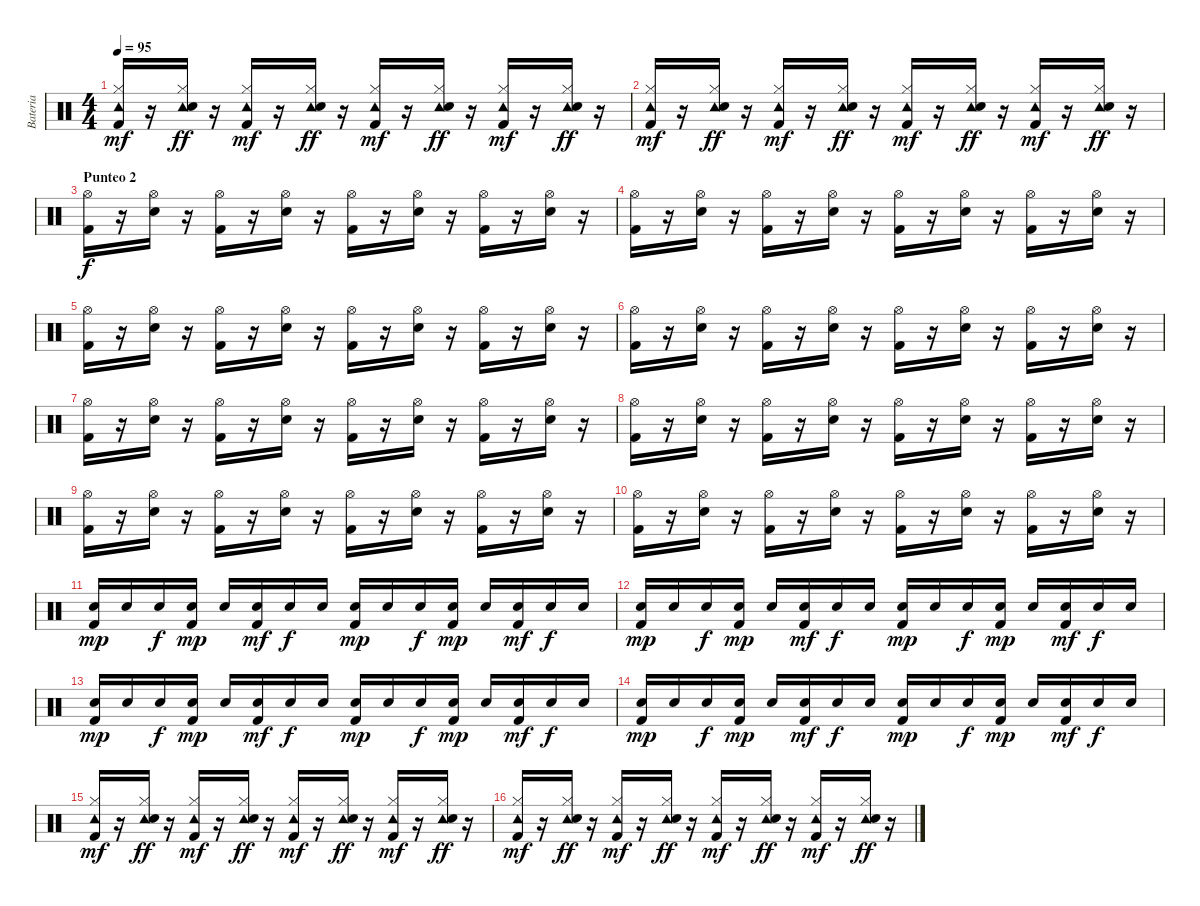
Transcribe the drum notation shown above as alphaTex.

\track ("Bateria" "Bateria") {instrument percussion}
\staff {score}
\articulation defaults
\ts (4 4)
\tempo 95
\clef neutral
\ks c
("Tambourine (hit)" "Hi-Hat (closed)" "Kick (hit) 2").16{dy mf} r.16 ("Tambourine (hit)" "Hi-Hat (closed)" "Snare (hit) 2").16{dy ff} r.16 ("Tambourine (hit)" "Hi-Hat (closed)" "Kick (hit) 2").16{dy mf} r.16 ("Tambourine (hit)" "Hi-Hat (closed)" "Snare (hit) 2").16{dy ff} r.16 ("Tambourine (hit)" "Hi-Hat (closed)" "Kick (hit) 2").16{dy mf} r.16 ("Tambourine (hit)" "Hi-Hat (closed)" "Snare (hit) 2").16{dy ff} r.16 ("Tambourine (hit)" "Hi-Hat (closed)" "Kick (hit) 2").16{dy mf} r.16 ("Tambourine (hit)" "Hi-Hat (closed)" "Snare (hit) 2").16{dy ff} r.16 |
("Tambourine (hit)" "Hi-Hat (closed)" "Kick (hit) 2").16{dy mf} r.16 ("Tambourine (hit)" "Hi-Hat (closed)" "Snare (hit) 2").16{dy ff} r.16 ("Tambourine (hit)" "Hi-Hat (closed)" "Kick (hit) 2").16{dy mf} r.16 ("Tambourine (hit)" "Hi-Hat (closed)" "Snare (hit) 2").16{dy ff} r.16 ("Tambourine (hit)" "Hi-Hat (closed)" "Kick (hit) 2").16{dy mf} r.16 ("Tambourine (hit)" "Hi-Hat (closed)" "Snare (hit) 2").16{dy ff} r.16 ("Tambourine (hit)" "Hi-Hat (closed)" "Kick (hit) 2").16{dy mf} r.16 ("Tambourine (hit)" "Hi-Hat (closed)" "Snare (hit) 2").16{dy ff} r.16 |
\section ("" "Punteo 2")
("Hi-Hat (open)" "Kick (hit) 2").16{dy f} r.16 ("Hi-Hat (open)" "Snare (hit) 2").16 r.16 ("Hi-Hat (open)" "Kick (hit) 2").16 r.16 ("Hi-Hat (open)" "Snare (hit) 2").16 r.16 ("Hi-Hat (open)" "Kick (hit) 2").16 r.16 ("Hi-Hat (open)" "Snare (hit) 2").16 r.16 ("Hi-Hat (open)" "Kick (hit) 2").16 r.16 ("Hi-Hat (open)" "Snare (hit) 2").16 r.16 |
("Hi-Hat (open)" "Kick (hit) 2").16 r.16 ("Hi-Hat (open)" "Snare (hit) 2").16 r.16 ("Hi-Hat (open)" "Kick (hit) 2").16 r.16 ("Hi-Hat (open)" "Snare (hit) 2").16 r.16 ("Hi-Hat (open)" "Kick (hit) 2").16 r.16 ("Hi-Hat (open)" "Snare (hit) 2").16 r.16 ("Hi-Hat (open)" "Kick (hit) 2").16 r.16 ("Hi-Hat (open)" "Snare (hit) 2").16 r.16 |
("Hi-Hat (open)" "Kick (hit) 2").16 r.16 ("Hi-Hat (open)" "Snare (hit) 2").16 r.16 ("Hi-Hat (open)" "Kick (hit) 2").16 r.16 ("Hi-Hat (open)" "Snare (hit) 2").16 r.16 ("Hi-Hat (open)" "Kick (hit) 2").16 r.16 ("Hi-Hat (open)" "Snare (hit) 2").16 r.16 ("Hi-Hat (open)" "Kick (hit) 2").16 r.16 ("Hi-Hat (open)" "Snare (hit) 2").16 r.16 |
("Hi-Hat (open)" "Kick (hit) 2").16 r.16 ("Hi-Hat (open)" "Snare (hit) 2").16 r.16 ("Hi-Hat (open)" "Kick (hit) 2").16 r.16 ("Hi-Hat (open)" "Snare (hit) 2").16 r.16 ("Hi-Hat (open)" "Kick (hit) 2").16 r.16 ("Hi-Hat (open)" "Snare (hit) 2").16 r.16 ("Hi-Hat (open)" "Kick (hit) 2").16 r.16 ("Hi-Hat (open)" "Snare (hit) 2").16 r.16 |
("Hi-Hat (open)" "Kick (hit) 2").16 r.16 ("Hi-Hat (open)" "Snare (hit) 2").16 r.16 ("Hi-Hat (open)" "Kick (hit) 2").16 r.16 ("Hi-Hat (open)" "Snare (hit) 2").16 r.16 ("Hi-Hat (open)" "Kick (hit) 2").16 r.16 ("Hi-Hat (open)" "Snare (hit) 2").16 r.16 ("Hi-Hat (open)" "Kick (hit) 2").16 r.16 ("Hi-Hat (open)" "Snare (hit) 2").16 r.16 |
("Hi-Hat (open)" "Kick (hit) 2").16 r.16 ("Hi-Hat (open)" "Snare (hit) 2").16 r.16 ("Hi-Hat (open)" "Kick (hit) 2").16 r.16 ("Hi-Hat (open)" "Snare (hit) 2").16 r.16 ("Hi-Hat (open)" "Kick (hit) 2").16 r.16 ("Hi-Hat (open)" "Snare (hit) 2").16 r.16 ("Hi-Hat (open)" "Kick (hit) 2").16 r.16 ("Hi-Hat (open)" "Snare (hit) 2").16 r.16 |
("Hi-Hat (open)" "Kick (hit) 2").16 r.16 ("Hi-Hat (open)" "Snare (hit) 2").16 r.16 ("Hi-Hat (open)" "Kick (hit) 2").16 r.16 ("Hi-Hat (open)" "Snare (hit) 2").16 r.16 ("Hi-Hat (open)" "Kick (hit) 2").16 r.16 ("Hi-Hat (open)" "Snare (hit) 2").16 r.16 ("Hi-Hat (open)" "Kick (hit) 2").16 r.16 ("Hi-Hat (open)" "Snare (hit) 2").16 r.16 |
("Hi-Hat (open)" "Kick (hit) 2").16 r.16 ("Hi-Hat (open)" "Snare (hit) 2").16 r.16 ("Hi-Hat (open)" "Kick (hit) 2").16 r.16 ("Hi-Hat (open)" "Snare (hit) 2").16 r.16 ("Hi-Hat (open)" "Kick (hit) 2").16 r.16 ("Hi-Hat (open)" "Snare (hit) 2").16 r.16 ("Hi-Hat (open)" "Kick (hit) 2").16 r.16 ("Hi-Hat (open)" "Snare (hit) 2").16 r.16 |
("Snare (hit) 2" "Kick (hit) 2").16{dy mp} "Snare (hit) 2".16 "Snare (hit) 2".16{dy f} ("Snare (hit) 2" "Kick (hit) 2").16{dy mp} "Snare (hit) 2".16 ("Snare (hit) 2" "Kick (hit) 2").16{dy mf} "Snare (hit) 2".16{dy f} "Snare (hit) 2".16 ("Snare (hit) 2" "Kick (hit) 2").16{dy mp} "Snare (hit) 2".16 "Snare (hit) 2".16{dy f} ("Snare (hit) 2" "Kick (hit) 2").16{dy mp} "Snare (hit) 2".16 ("Snare (hit) 2" "Kick (hit) 2").16{dy mf} "Snare (hit) 2".16{dy f} "Snare (hit) 2".16 |
("Snare (hit) 2" "Kick (hit) 2").16{dy mp} "Snare (hit) 2".16 "Snare (hit) 2".16{dy f} ("Snare (hit) 2" "Kick (hit) 2").16{dy mp} "Snare (hit) 2".16 ("Snare (hit) 2" "Kick (hit) 2").16{dy mf} "Snare (hit) 2".16{dy f} "Snare (hit) 2".16 ("Snare (hit) 2" "Kick (hit) 2").16{dy mp} "Snare (hit) 2".16 "Snare (hit) 2".16{dy f} ("Snare (hit) 2" "Kick (hit) 2").16{dy mp} "Snare (hit) 2".16 ("Snare (hit) 2" "Kick (hit) 2").16{dy mf} "Snare (hit) 2".16{dy f} "Snare (hit) 2".16 |
("Snare (hit) 2" "Kick (hit) 2").16{dy mp} "Snare (hit) 2".16 "Snare (hit) 2".16{dy f} ("Snare (hit) 2" "Kick (hit) 2").16{dy mp} "Snare (hit) 2".16 ("Snare (hit) 2" "Kick (hit) 2").16{dy mf} "Snare (hit) 2".16{dy f} "Snare (hit) 2".16 ("Snare (hit) 2" "Kick (hit) 2").16{dy mp} "Snare (hit) 2".16 "Snare (hit) 2".16{dy f} ("Snare (hit) 2" "Kick (hit) 2").16{dy mp} "Snare (hit) 2".16 ("Snare (hit) 2" "Kick (hit) 2").16{dy mf} "Snare (hit) 2".16{dy f} "Snare (hit) 2".16 |
("Snare (hit) 2" "Kick (hit) 2").16{dy mp} "Snare (hit) 2".16 "Snare (hit) 2".16{dy f} ("Snare (hit) 2" "Kick (hit) 2").16{dy mp} "Snare (hit) 2".16 ("Snare (hit) 2" "Kick (hit) 2").16{dy mf} "Snare (hit) 2".16{dy f} "Snare (hit) 2".16 ("Snare (hit) 2" "Kick (hit) 2").16{dy mp} "Snare (hit) 2".16 "Snare (hit) 2".16{dy f} ("Snare (hit) 2" "Kick (hit) 2").16{dy mp} "Snare (hit) 2".16 ("Snare (hit) 2" "Kick (hit) 2").16{dy mf} "Snare (hit) 2".16{dy f} "Snare (hit) 2".16 |
("Tambourine (hit)" "Hi-Hat (closed)" "Kick (hit) 2").16{dy mf} r.16 ("Tambourine (hit)" "Hi-Hat (closed)" "Snare (hit) 2").16{dy ff} r.16 ("Tambourine (hit)" "Hi-Hat (closed)" "Kick (hit) 2").16{dy mf} r.16 ("Tambourine (hit)" "Hi-Hat (closed)" "Snare (hit) 2").16{dy ff} r.16 ("Tambourine (hit)" "Hi-Hat (closed)" "Kick (hit) 2").16{dy mf} r.16 ("Tambourine (hit)" "Hi-Hat (closed)" "Snare (hit) 2").16{dy ff} r.16 ("Tambourine (hit)" "Hi-Hat (closed)" "Kick (hit) 2").16{dy mf} r.16 ("Tambourine (hit)" "Hi-Hat (closed)" "Snare (hit) 2").16{dy ff} r.16 |
("Tambourine (hit)" "Hi-Hat (closed)" "Kick (hit) 2").16{dy mf} r.16 ("Tambourine (hit)" "Hi-Hat (closed)" "Snare (hit) 2").16{dy ff} r.16 ("Tambourine (hit)" "Hi-Hat (closed)" "Kick (hit) 2").16{dy mf} r.16 ("Tambourine (hit)" "Hi-Hat (closed)" "Snare (hit) 2").16{dy ff} r.16 ("Tambourine (hit)" "Hi-Hat (closed)" "Kick (hit) 2").16{dy mf} r.16 ("Tambourine (hit)" "Hi-Hat (closed)" "Snare (hit) 2").16{dy ff} r.16 ("Tambourine (hit)" "Hi-Hat (closed)" "Kick (hit) 2").16{dy mf} r.16 ("Tambourine (hit)" "Hi-Hat (closed)" "Snare (hit) 2").16{dy ff} r.16
